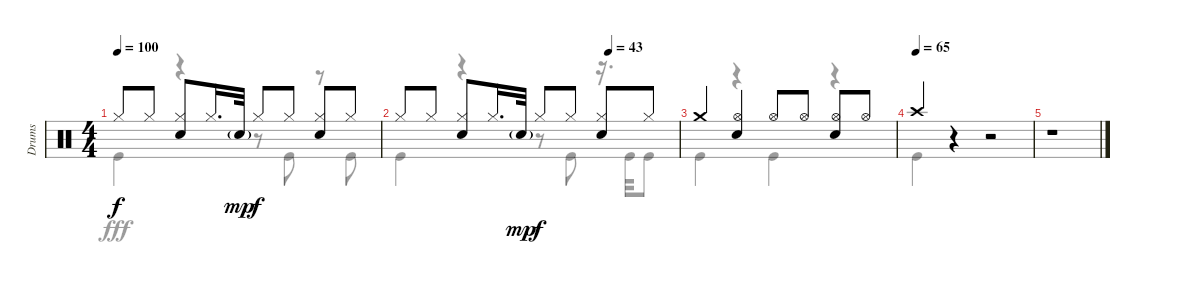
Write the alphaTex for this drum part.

\track ("Drums" "Drums") {instrument percussion}
\staff {score}
\articulation defaults
\voice
\ts (4 4)
\tempo 100
\clef neutral
\ks c "Hi-Hat (closed)".8{dy f} "Hi-Hat (closed)".8
("Hi-Hat (closed)" "Snare (hit) 2").8 "Hi-Hat (closed)".16{d} "Snare (hit) 2"{g}.32{dy mp} "Hi-Hat (closed)".8{dy f} "Hi-Hat (closed)".8 ("Hi-Hat (closed)" "Snare (hit) 2").8 "Hi-Hat (closed)".8 |
\tempo (43 0.75)
"Hi-Hat (closed)".8 "Hi-Hat (closed)".8 ("Hi-Hat (closed)" "Snare (hit) 2").8 "Hi-Hat (closed)".16{d} "Snare (hit) 2"{g}.32{dy mp} "Hi-Hat (closed)".8{dy f} "Hi-Hat (closed)".8 ("Hi-Hat (closed)" "Snare (hit) 2").8 "Hi-Hat (closed)".8 |
"Crash medium (hit)".4 ("Hi-Hat (open)" "Snare (hit) 2").4 "Hi-Hat (open)".8 "Hi-Hat (open)".8 ("Hi-Hat (open)" "Snare (hit) 2").8 "Hi-Hat (open)".8 |
\tempo (65)
"Crash high (hit)".4 r.4 r.2 |
r.1
\voice
\clef neutral
\ottava regular
\simile none
\ks c "Kick (hit)".4{dy fff}
r.4 r.8 "Kick (hit)".8 r.8 "Kick (hit)".8 |
"Kick (hit)".4 r.4 r.8 "Kick (hit)".8 r.16{d} "Kick (hit)".32 "Kick (hit)".8 |
"Kick (hit)".4 r.4 "Kick (hit)".4 r.4 |
"Kick (hit)".4 r.4 r.2 |
r.1
